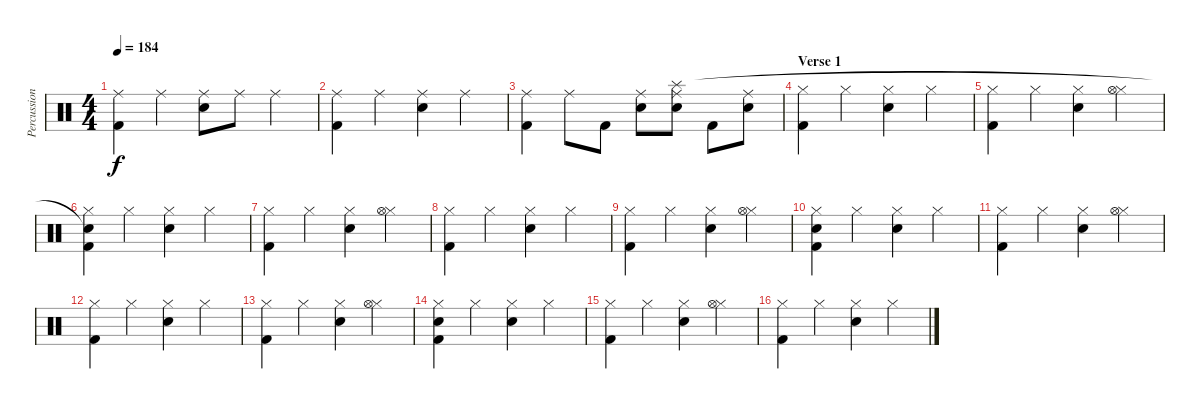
\track ("Percussion" "Percussion") {instrument percussion}
\staff {score}
\articulation defaults
\ts (4 4)
\tempo 184
\clef neutral
\ks c
("Kick (hit) 2" "Ride (middle)").4{dy f} "Ride (middle)".4 ("Snare (hit) 2" "Ride (middle)").8 "Ride (middle)".8 "Ride (middle)".4 |
("Kick (hit) 2" "Ride (middle)").4 "Ride (middle)".4 ("Snare (hit) 2" "Ride (middle)").4 "Ride (middle)".4 |
("Kick (hit) 2" "Ride (middle)").4 "Ride (middle)".8 "Kick (hit) 2".8 ("Snare (hit) 2" "Ride (middle)").8 ("Snare (hit) 2" "Ride (middle)" "Splash (hit)").8 "Kick (hit) 2".8 ("Snare (hit) 2" "Ride (middle)").8 |
\section ("" "Verse 1")
("Kick (hit) 2" "Hi-Hat (closed)").4 "Hi-Hat (closed)".4 ("Snare (hit) 2" "Hi-Hat (closed)").4 "Hi-Hat (closed)".4 |
("Kick (hit) 2" "Hi-Hat (closed)").4 "Hi-Hat (closed)".4 ("Snare (hit) 2" "Hi-Hat (closed)").4 ("Hi-Hat (closed)" "Hi-Hat (open)").4 |
("Kick (hit) 2" "Hi-Hat (closed)" "Snare (hit)"{t}).4 "Hi-Hat (closed)".4 ("Snare (hit) 2" "Hi-Hat (closed)").4 "Hi-Hat (closed)".4 |
("Kick (hit) 2" "Hi-Hat (closed)").4 "Hi-Hat (closed)".4 ("Snare (hit) 2" "Hi-Hat (closed)").4 ("Hi-Hat (closed)" "Hi-Hat (open)").4 |
("Kick (hit) 2" "Hi-Hat (closed)").4 "Hi-Hat (closed)".4 ("Snare (hit) 2" "Hi-Hat (closed)").4 "Hi-Hat (closed)".4 |
("Kick (hit) 2" "Hi-Hat (closed)").4 "Hi-Hat (closed)".4 ("Snare (hit) 2" "Hi-Hat (closed)").4 ("Hi-Hat (closed)" "Hi-Hat (open)").4 |
("Kick (hit) 2" "Hi-Hat (closed)" "Snare (hit)").4 "Hi-Hat (closed)".4 ("Snare (hit) 2" "Hi-Hat (closed)").4 "Hi-Hat (closed)".4 |
("Kick (hit) 2" "Hi-Hat (closed)").4 "Hi-Hat (closed)".4 ("Snare (hit) 2" "Hi-Hat (closed)").4 ("Hi-Hat (closed)" "Hi-Hat (open)").4 |
("Kick (hit) 2" "Hi-Hat (closed)").4 "Hi-Hat (closed)".4 ("Snare (hit) 2" "Hi-Hat (closed)").4 "Hi-Hat (closed)".4 |
("Kick (hit) 2" "Hi-Hat (closed)").4 "Hi-Hat (closed)".4 ("Snare (hit) 2" "Hi-Hat (closed)").4 ("Hi-Hat (closed)" "Hi-Hat (open)").4 |
("Kick (hit) 2" "Hi-Hat (closed)" "Snare (hit)").4 "Hi-Hat (closed)".4 ("Snare (hit) 2" "Hi-Hat (closed)").4 "Hi-Hat (closed)".4 |
("Kick (hit) 2" "Hi-Hat (closed)").4 "Hi-Hat (closed)".4 ("Snare (hit) 2" "Hi-Hat (closed)").4 ("Hi-Hat (closed)" "Hi-Hat (open)").4 |
("Kick (hit) 2" "Hi-Hat (closed)").4 "Hi-Hat (closed)".4 ("Snare (hit) 2" "Hi-Hat (closed)").4 "Hi-Hat (closed)".4
